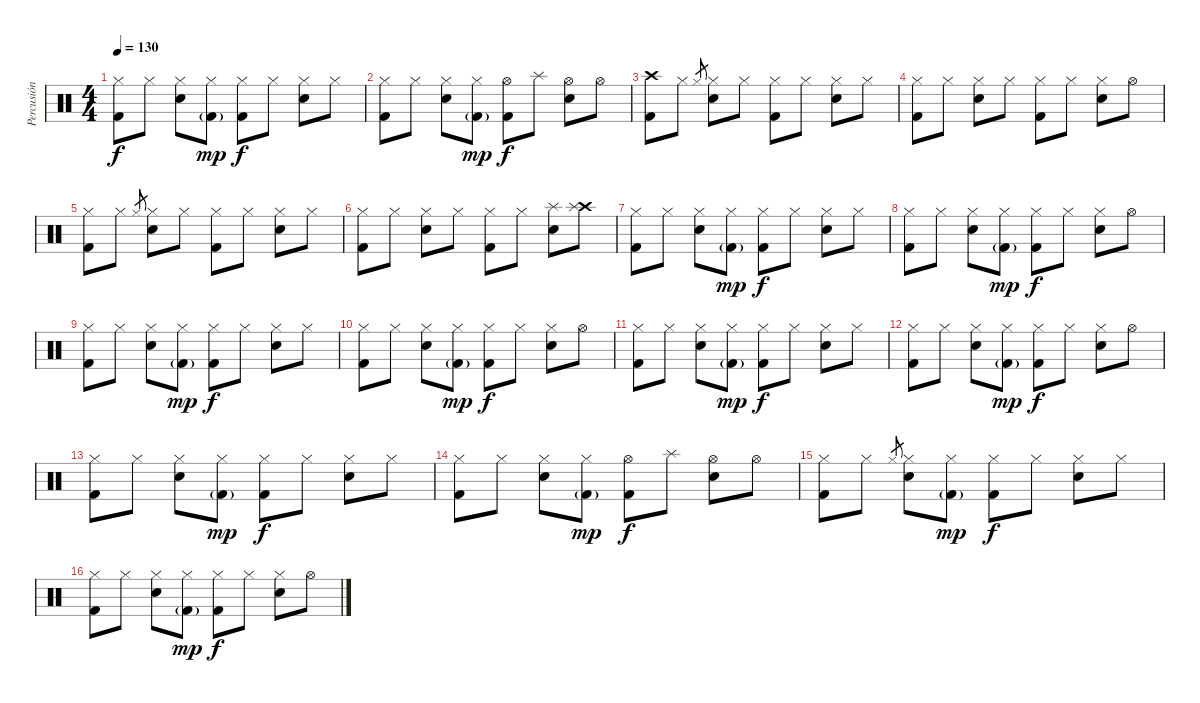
\track ("Percusión" "Percusión") {instrument percussion}
\staff {score}
\articulation defaults
\ts (4 4)
\tempo 130
\clef neutral
\ks c
("Hi-Hat (closed)" "Kick (hit) 2").8{dy f} "Hi-Hat (closed)".8 ("Hi-Hat (closed)" "Snare (hit) 2").8 ("Hi-Hat (closed)" "Kick (hit) 2"{g}).8{dy mp} ("Hi-Hat (closed)" "Kick (hit) 2").8{dy f} "Hi-Hat (closed)".8 ("Hi-Hat (closed)" "Snare (hit) 2").8 "Hi-Hat (closed)".8 |
("Hi-Hat (closed)" "Kick (hit) 2").8 "Hi-Hat (closed)".8 ("Hi-Hat (closed)" "Snare (hit) 2").8 ("Hi-Hat (closed)" "Kick (hit) 2"{g}).8{dy mp} ("Hi-Hat (open)" "Kick (hit) 2").8{dy f} "Splash (hit)".8 ("Hi-Hat (open)" "Snare (hit) 2").8 "Hi-Hat (open)".8 |
("Crash high (hit)" "Kick (hit) 2").8 "Hi-Hat (closed)".8 "Hi-Hat (closed)".8{gr} ("Hi-Hat (closed)" "Snare (hit) 2").8 "Hi-Hat (closed)".8 ("Hi-Hat (closed)" "Kick (hit) 2").8 "Hi-Hat (closed)".8 ("Hi-Hat (closed)" "Snare (hit) 2").8 "Hi-Hat (closed)".8 |
("Hi-Hat (closed)" "Kick (hit) 2").8 "Hi-Hat (closed)".8 ("Hi-Hat (closed)" "Snare (hit) 2").8 "Hi-Hat (closed)".8 ("Hi-Hat (closed)" "Kick (hit) 2").8 "Hi-Hat (closed)".8 ("Hi-Hat (closed)" "Snare (hit) 2").8 "Hi-Hat (open)".8 |
("Hi-Hat (closed)" "Kick (hit) 2").8 "Hi-Hat (closed)".8 "Hi-Hat (closed)".8{gr} ("Hi-Hat (closed)" "Snare (hit) 2").8 "Hi-Hat (closed)".8 ("Hi-Hat (closed)" "Kick (hit) 2").8 "Hi-Hat (closed)".8 ("Hi-Hat (closed)" "Snare (hit) 2").8 "Hi-Hat (closed)".8 |
("Hi-Hat (closed)" "Kick (hit) 2").8 "Hi-Hat (closed)".8 ("Hi-Hat (closed)" "Snare (hit) 2").8 "Hi-Hat (closed)".8 ("Hi-Hat (closed)" "Kick (hit) 2").8 "Hi-Hat (closed)".8 ("Splash (hit)" "Snare (hit) 2").8 ("Crash high (hit)" "Splash (hit)").8 |
("Hi-Hat (closed)" "Kick (hit) 2").8 "Hi-Hat (closed)".8 ("Hi-Hat (closed)" "Snare (hit) 2").8 ("Hi-Hat (closed)" "Kick (hit) 2"{g}).8{dy mp} ("Hi-Hat (closed)" "Kick (hit) 2").8{dy f} "Hi-Hat (closed)".8 ("Hi-Hat (closed)" "Snare (hit) 2").8 "Hi-Hat (closed)".8 |
("Hi-Hat (closed)" "Kick (hit) 2").8 "Hi-Hat (closed)".8 ("Hi-Hat (closed)" "Snare (hit) 2").8 ("Hi-Hat (closed)" "Kick (hit) 2"{g}).8{dy mp} ("Hi-Hat (closed)" "Kick (hit) 2").8{dy f} "Hi-Hat (closed)".8 ("Hi-Hat (closed)" "Snare (hit) 2").8 "Hi-Hat (open)".8 |
("Hi-Hat (closed)" "Kick (hit) 2").8 "Hi-Hat (closed)".8 ("Hi-Hat (closed)" "Snare (hit) 2").8 ("Hi-Hat (closed)" "Kick (hit) 2"{g}).8{dy mp} ("Hi-Hat (closed)" "Kick (hit) 2").8{dy f} "Hi-Hat (closed)".8 ("Hi-Hat (closed)" "Snare (hit) 2").8 "Hi-Hat (closed)".8 |
("Hi-Hat (closed)" "Kick (hit) 2").8 "Hi-Hat (closed)".8 ("Hi-Hat (closed)" "Snare (hit) 2").8 ("Hi-Hat (closed)" "Kick (hit) 2"{g}).8{dy mp} ("Hi-Hat (closed)" "Kick (hit) 2").8{dy f} "Hi-Hat (closed)".8 ("Hi-Hat (closed)" "Snare (hit) 2").8 "Hi-Hat (open)".8 |
("Hi-Hat (closed)" "Kick (hit) 2").8 "Hi-Hat (closed)".8 ("Hi-Hat (closed)" "Snare (hit) 2").8 ("Hi-Hat (closed)" "Kick (hit) 2"{g}).8{dy mp} ("Hi-Hat (closed)" "Kick (hit) 2").8{dy f} "Hi-Hat (closed)".8 ("Hi-Hat (closed)" "Snare (hit) 2").8 "Hi-Hat (closed)".8 |
("Hi-Hat (closed)" "Kick (hit) 2").8 "Hi-Hat (closed)".8 ("Hi-Hat (closed)" "Snare (hit) 2").8 ("Hi-Hat (closed)" "Kick (hit) 2"{g}).8{dy mp} ("Hi-Hat (closed)" "Kick (hit) 2").8{dy f} "Hi-Hat (closed)".8 ("Hi-Hat (closed)" "Snare (hit) 2").8 "Hi-Hat (open)".8 |
("Hi-Hat (closed)" "Kick (hit) 2").8 "Hi-Hat (closed)".8 ("Hi-Hat (closed)" "Snare (hit) 2").8 ("Hi-Hat (closed)" "Kick (hit) 2"{g}).8{dy mp} ("Hi-Hat (closed)" "Kick (hit) 2").8{dy f} "Hi-Hat (closed)".8 ("Hi-Hat (closed)" "Snare (hit) 2").8 "Hi-Hat (closed)".8 |
("Hi-Hat (closed)" "Kick (hit) 2").8 "Hi-Hat (closed)".8 ("Hi-Hat (closed)" "Snare (hit) 2").8 ("Hi-Hat (closed)" "Kick (hit) 2"{g}).8{dy mp} ("Hi-Hat (open)" "Kick (hit) 2").8{dy f} "Splash (hit)".8 ("Hi-Hat (open)" "Snare (hit) 2").8 "Hi-Hat (open)".8 |
("Hi-Hat (closed)" "Kick (hit) 2").8 "Hi-Hat (closed)".8 "Hi-Hat (closed)".8{gr} ("Hi-Hat (closed)" "Snare (hit) 2").8 ("Hi-Hat (closed)" "Kick (hit) 2"{g}).8{dy mp} ("Hi-Hat (closed)" "Kick (hit) 2").8{dy f} "Hi-Hat (closed)".8 ("Hi-Hat (closed)" "Snare (hit) 2").8 "Hi-Hat (closed)".8 |
("Hi-Hat (closed)" "Kick (hit) 2").8 "Hi-Hat (closed)".8 ("Hi-Hat (closed)" "Snare (hit) 2").8 ("Hi-Hat (closed)" "Kick (hit) 2"{g}).8{dy mp} ("Hi-Hat (closed)" "Kick (hit) 2").8{dy f} "Hi-Hat (closed)".8 ("Hi-Hat (closed)" "Snare (hit) 2").8 "Hi-Hat (open)".8
